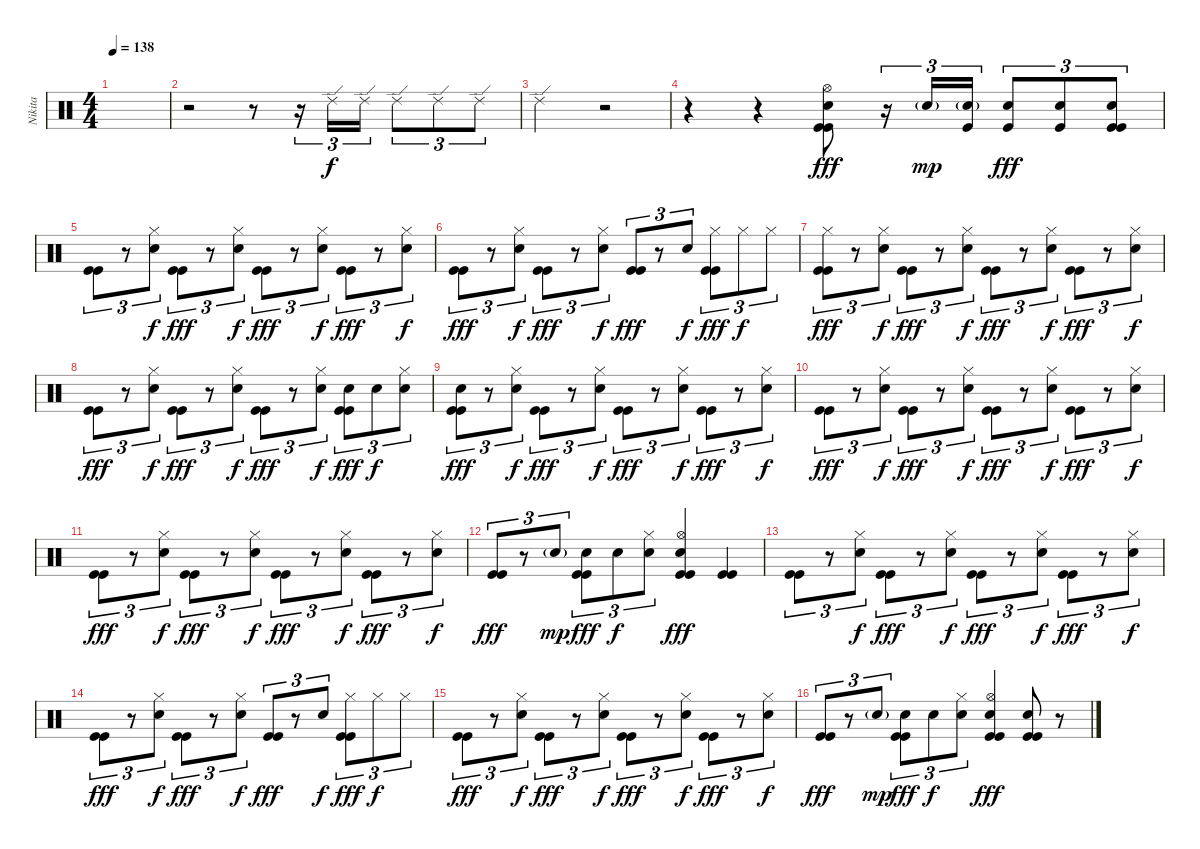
\track ("Nikita" "Nikita") {instrument percussion}
\staff {score}
\articulation defaults
\ts (4 4)
\tempo 138
\clef neutral
\ks c
|
r.2 r.8 r.16{tu (3 2)} "Ride (edge) 2".16{tu (3 2)} "Ride (edge) 2".16{tu (3 2)} "Ride (edge) 2".8{tu (3 2)} "Ride (edge) 2".8{tu (3 2)} "Ride (edge) 2".8{tu (3 2)} |
"Ride (edge) 2".2 r.2 |
r.4 r.4 ("Kick (hit)" "Kick (hit)" "Snare (hit) 2" "Hi-Hat (open)").8{dy fff} r.16{tu (3 2)} "Electric Snare (hit)"{g}.16{tu (3 2) dy mp} ("Kick (hit)" "Electric Snare (hit)"{g}).16{tu (3 2)} ("Kick (hit)" "Electric Snare (hit)").8{tu (3 2) dy fff} ("Kick (hit)" "Electric Snare (hit)").8{tu (3 2)} ("Kick (hit)" "Kick (hit)" "Electric Snare (hit)").8{tu (3 2)} |
("Kick (hit)" "Kick (hit)").8{tu (3 2)} r.8{tu (3 2)} ("Snare (hit) 2" "Hi-Hat (closed)").8{tu (3 2) dy f} ("Kick (hit)" "Kick (hit)").8{tu (3 2) dy fff} r.8{tu (3 2)} ("Snare (hit) 2" "Hi-Hat (closed)").8{tu (3 2) dy f} ("Kick (hit)" "Kick (hit)").8{tu (3 2) dy fff} r.8{tu (3 2)} ("Snare (hit) 2" "Hi-Hat (closed)").8{tu (3 2) dy f} ("Kick (hit)" "Kick (hit)").8{tu (3 2) dy fff} r.8{tu (3 2)} ("Snare (hit) 2" "Hi-Hat (closed)").8{tu (3 2) dy f} |
("Kick (hit)" "Kick (hit)").8{tu (3 2) dy fff} r.8{tu (3 2)} ("Snare (hit) 2" "Hi-Hat (closed)").8{tu (3 2) dy f} ("Kick (hit)" "Kick (hit)").8{tu (3 2) dy fff} r.8{tu (3 2)} ("Snare (hit) 2" "Hi-Hat (closed)").8{tu (3 2) dy f} ("Kick (hit)" "Kick (hit)").8{tu (3 2) dy fff} r.8{tu (3 2)} "Snare (hit) 2".8{tu (3 2) dy f} ("Kick (hit)" "Kick (hit)" "Hi-Hat (closed)").8{tu (3 2) dy fff} "Hi-Hat (closed)".8{tu (3 2) dy f} "Hi-Hat (closed)".8{tu (3 2)} |
("Kick (hit)" "Kick (hit)" "Hi-Hat (closed)").8{tu (3 2) dy fff} r.8{tu (3 2)} ("Snare (hit) 2" "Hi-Hat (closed)").8{tu (3 2) dy f} ("Kick (hit)" "Kick (hit)").8{tu (3 2) dy fff} r.8{tu (3 2)} ("Snare (hit) 2" "Hi-Hat (closed)").8{tu (3 2) dy f} ("Kick (hit)" "Kick (hit)").8{tu (3 2) dy fff} r.8{tu (3 2)} ("Snare (hit) 2" "Hi-Hat (closed)").8{tu (3 2) dy f} ("Kick (hit)" "Kick (hit)").8{tu (3 2) dy fff} r.8{tu (3 2)} ("Snare (hit) 2" "Hi-Hat (closed)").8{tu (3 2) dy f} |
("Kick (hit)" "Kick (hit)").8{tu (3 2) dy fff} r.8{tu (3 2)} ("Snare (hit) 2" "Hi-Hat (closed)").8{tu (3 2) dy f} ("Kick (hit)" "Kick (hit)").8{tu (3 2) dy fff} r.8{tu (3 2)} ("Snare (hit) 2" "Hi-Hat (closed)").8{tu (3 2) dy f} ("Kick (hit)" "Kick (hit)").8{tu (3 2) dy fff} r.8{tu (3 2)} ("Electric Snare (hit)" "Hi-Hat (closed)").8{tu (3 2) dy f} ("Kick (hit)" "Kick (hit)" "Electric Snare (hit)").8{tu (3 2) dy fff} "Electric Snare (hit)".8{tu (3 2) dy f} ("Electric Snare (hit)" "Hi-Hat (closed)").8{tu (3 2)} |
("Kick (hit)" "Kick (hit)" "Electric Snare (hit)").8{tu (3 2) dy fff} r.8{tu (3 2)} ("Snare (hit) 2" "Hi-Hat (closed)").8{tu (3 2) dy f} ("Kick (hit)" "Kick (hit)").8{tu (3 2) dy fff} r.8{tu (3 2)} ("Snare (hit) 2" "Hi-Hat (closed)").8{tu (3 2) dy f} ("Kick (hit)" "Kick (hit)").8{tu (3 2) dy fff} r.8{tu (3 2)} ("Snare (hit) 2" "Hi-Hat (closed)").8{tu (3 2) dy f} ("Kick (hit)" "Kick (hit)").8{tu (3 2) dy fff} r.8{tu (3 2)} ("Snare (hit) 2" "Hi-Hat (closed)").8{tu (3 2) dy f} |
("Kick (hit)" "Kick (hit)").8{tu (3 2) dy fff} r.8{tu (3 2)} ("Snare (hit) 2" "Hi-Hat (closed)").8{tu (3 2) dy f} ("Kick (hit)" "Kick (hit)").8{tu (3 2) dy fff} r.8{tu (3 2)} ("Snare (hit) 2" "Hi-Hat (closed)").8{tu (3 2) dy f} ("Kick (hit)" "Kick (hit)").8{tu (3 2) dy fff} r.8{tu (3 2)} ("Snare (hit) 2" "Hi-Hat (closed)").8{tu (3 2) dy f} ("Kick (hit)" "Kick (hit)").8{tu (3 2) dy fff} r.8{tu (3 2)} ("Snare (hit) 2" "Hi-Hat (closed)").8{tu (3 2) dy f} |
("Kick (hit)" "Kick (hit)").8{tu (3 2) dy fff} r.8{tu (3 2)} ("Snare (hit) 2" "Hi-Hat (closed)").8{tu (3 2) dy f} ("Kick (hit)" "Kick (hit)").8{tu (3 2) dy fff} r.8{tu (3 2)} ("Snare (hit) 2" "Hi-Hat (closed)").8{tu (3 2) dy f} ("Kick (hit)" "Kick (hit)").8{tu (3 2) dy fff} r.8{tu (3 2)} ("Snare (hit) 2" "Hi-Hat (closed)").8{tu (3 2) dy f} ("Kick (hit)" "Kick (hit)").8{tu (3 2) dy fff} r.8{tu (3 2)} ("Snare (hit) 2" "Hi-Hat (closed)").8{tu (3 2) dy f} |
("Kick (hit)" "Kick (hit)").8{tu (3 2) dy fff} r.8{tu (3 2)} "Electric Snare (hit)"{g}.8{tu (3 2) dy mp} ("Kick (hit)" "Kick (hit)" "Electric Snare (hit)").8{tu (3 2) dy fff} "Electric Snare (hit)".8{tu (3 2) dy f} ("Electric Snare (hit)" "Hi-Hat (closed)").8{tu (3 2)} ("Kick (hit)" "Kick (hit)" "Electric Snare (hit)" "Hi-Hat (open)").4{dy fff} ("Kick (hit)" "Kick (hit)").4 |
\section ("" "")
("Kick (hit)" "Kick (hit)").8{tu (3 2)} r.8{tu (3 2)} ("Snare (hit) 2" "Hi-Hat (closed)").8{tu (3 2) dy f} ("Kick (hit)" "Kick (hit)").8{tu (3 2) dy fff} r.8{tu (3 2)} ("Snare (hit) 2" "Hi-Hat (closed)").8{tu (3 2) dy f} ("Kick (hit)" "Kick (hit)").8{tu (3 2) dy fff} r.8{tu (3 2)} ("Snare (hit) 2" "Hi-Hat (closed)").8{tu (3 2) dy f} ("Kick (hit)" "Kick (hit)").8{tu (3 2) dy fff} r.8{tu (3 2)} ("Snare (hit) 2" "Hi-Hat (closed)").8{tu (3 2) dy f} |
("Kick (hit)" "Kick (hit)").8{tu (3 2) dy fff} r.8{tu (3 2)} ("Snare (hit) 2" "Hi-Hat (closed)").8{tu (3 2) dy f} ("Kick (hit)" "Kick (hit)").8{tu (3 2) dy fff} r.8{tu (3 2)} ("Snare (hit) 2" "Hi-Hat (closed)").8{tu (3 2) dy f} ("Kick (hit)" "Kick (hit)").8{tu (3 2) dy fff} r.8{tu (3 2)} "Snare (hit) 2".8{tu (3 2) dy f} ("Kick (hit)" "Kick (hit)" "Hi-Hat (closed)").8{tu (3 2) dy fff} "Hi-Hat (closed)".8{tu (3 2) dy f} "Hi-Hat (closed)".8{tu (3 2)} |
("Kick (hit)" "Kick (hit)").8{tu (3 2) dy fff} r.8{tu (3 2)} ("Snare (hit) 2" "Hi-Hat (closed)").8{tu (3 2) dy f} ("Kick (hit)" "Kick (hit)").8{tu (3 2) dy fff} r.8{tu (3 2)} ("Snare (hit) 2" "Hi-Hat (closed)").8{tu (3 2) dy f} ("Kick (hit)" "Kick (hit)").8{tu (3 2) dy fff} r.8{tu (3 2)} ("Snare (hit) 2" "Hi-Hat (closed)").8{tu (3 2) dy f} ("Kick (hit)" "Kick (hit)").8{tu (3 2) dy fff} r.8{tu (3 2)} ("Snare (hit) 2" "Hi-Hat (closed)").8{tu (3 2) dy f} |
("Kick (hit)" "Kick (hit)").8{tu (3 2) dy fff} r.8{tu (3 2)} "Electric Snare (hit)"{g}.8{tu (3 2) dy mp} ("Kick (hit)" "Kick (hit)" "Electric Snare (hit)").8{tu (3 2) dy fff} "Electric Snare (hit)".8{tu (3 2) dy f} ("Electric Snare (hit)" "Hi-Hat (closed)").8{tu (3 2)} ("Kick (hit)" "Kick (hit)" "Electric Snare (hit)" "Hi-Hat (open)").4{dy fff} ("Kick (hit)" "Kick (hit)" "Electric Snare (hit)").8 r.8
